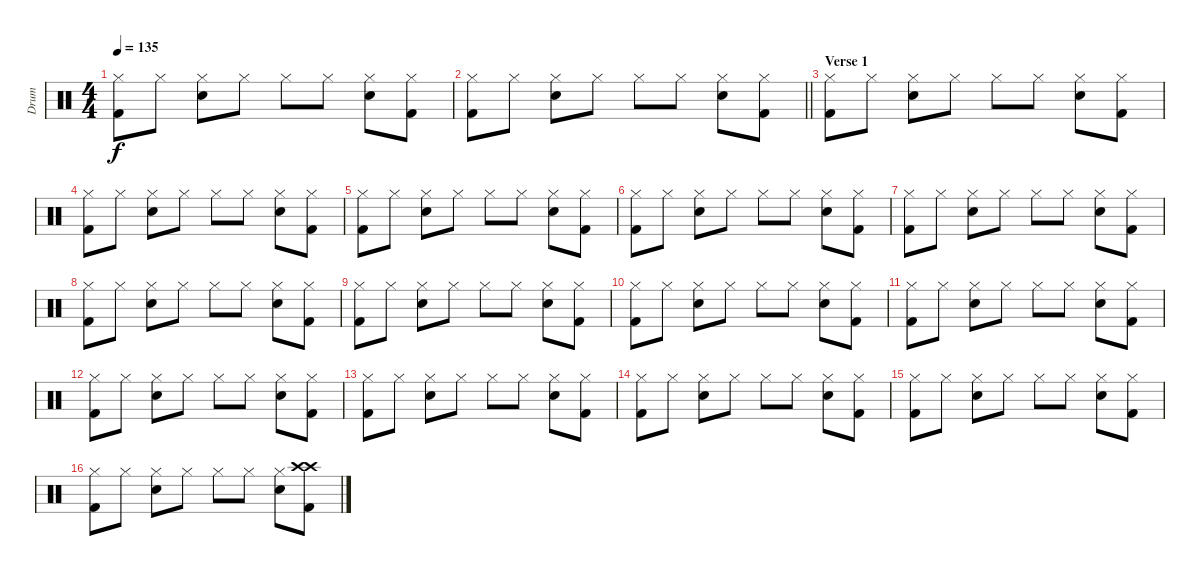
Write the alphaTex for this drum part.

\track ("Drum" "Drum") {instrument percussion}
\staff {score}
\articulation defaults
\ts (4 4)
\tempo 135
\clef neutral
\ks c
("Hi-Hat (closed)" "Kick (hit) 2").8{dy f} "Hi-Hat (closed)".8 ("Snare (hit) 2" "Hi-Hat (closed)").8 "Hi-Hat (closed)".8 "Hi-Hat (closed)".8 "Hi-Hat (closed)".8 ("Snare (hit) 2" "Hi-Hat (closed)").8 ("Hi-Hat (closed)" "Kick (hit) 2").8 |
\barLineRight lightlight
("Hi-Hat (closed)" "Kick (hit) 2").8 "Hi-Hat (closed)".8 ("Snare (hit) 2" "Hi-Hat (closed)").8 "Hi-Hat (closed)".8 "Hi-Hat (closed)".8 "Hi-Hat (closed)".8 ("Snare (hit) 2" "Hi-Hat (closed)").8 ("Hi-Hat (closed)" "Kick (hit) 2").8 |
\section ("" "Verse 1")
("Hi-Hat (closed)" "Kick (hit) 2").8 "Hi-Hat (closed)".8 ("Snare (hit) 2" "Hi-Hat (closed)").8 "Hi-Hat (closed)".8 "Hi-Hat (closed)".8 "Hi-Hat (closed)".8 ("Snare (hit) 2" "Hi-Hat (closed)").8 ("Hi-Hat (closed)" "Kick (hit) 2").8 |
("Hi-Hat (closed)" "Kick (hit) 2").8 "Hi-Hat (closed)".8 ("Snare (hit) 2" "Hi-Hat (closed)").8 "Hi-Hat (closed)".8 "Hi-Hat (closed)".8 "Hi-Hat (closed)".8 ("Snare (hit) 2" "Hi-Hat (closed)").8 ("Hi-Hat (closed)" "Kick (hit) 2").8 |
("Hi-Hat (closed)" "Kick (hit) 2").8 "Hi-Hat (closed)".8 ("Snare (hit) 2" "Hi-Hat (closed)").8 "Hi-Hat (closed)".8 "Hi-Hat (closed)".8 "Hi-Hat (closed)".8 ("Snare (hit) 2" "Hi-Hat (closed)").8 ("Hi-Hat (closed)" "Kick (hit) 2").8 |
("Hi-Hat (closed)" "Kick (hit) 2").8 "Hi-Hat (closed)".8 ("Snare (hit) 2" "Hi-Hat (closed)").8 "Hi-Hat (closed)".8 "Hi-Hat (closed)".8 "Hi-Hat (closed)".8 ("Snare (hit) 2" "Hi-Hat (closed)").8 ("Hi-Hat (closed)" "Kick (hit) 2").8 |
("Hi-Hat (closed)" "Kick (hit) 2").8 "Hi-Hat (closed)".8 ("Snare (hit) 2" "Hi-Hat (closed)").8 "Hi-Hat (closed)".8 "Hi-Hat (closed)".8 "Hi-Hat (closed)".8 ("Snare (hit) 2" "Hi-Hat (closed)").8 ("Hi-Hat (closed)" "Kick (hit) 2").8 |
("Hi-Hat (closed)" "Kick (hit) 2").8 "Hi-Hat (closed)".8 ("Snare (hit) 2" "Hi-Hat (closed)").8 "Hi-Hat (closed)".8 "Hi-Hat (closed)".8 "Hi-Hat (closed)".8 ("Snare (hit) 2" "Hi-Hat (closed)").8 ("Hi-Hat (closed)" "Kick (hit) 2").8 |
("Hi-Hat (closed)" "Kick (hit) 2").8 "Hi-Hat (closed)".8 ("Snare (hit) 2" "Hi-Hat (closed)").8 "Hi-Hat (closed)".8 "Hi-Hat (closed)".8 "Hi-Hat (closed)".8 ("Snare (hit) 2" "Hi-Hat (closed)").8 ("Hi-Hat (closed)" "Kick (hit) 2").8 |
("Hi-Hat (closed)" "Kick (hit) 2").8 "Hi-Hat (closed)".8 ("Snare (hit) 2" "Hi-Hat (closed)").8 "Hi-Hat (closed)".8 "Hi-Hat (closed)".8 "Hi-Hat (closed)".8 ("Snare (hit) 2" "Hi-Hat (closed)").8 ("Hi-Hat (closed)" "Kick (hit) 2").8 |
("Hi-Hat (closed)" "Kick (hit) 2").8 "Hi-Hat (closed)".8 ("Snare (hit) 2" "Hi-Hat (closed)").8 "Hi-Hat (closed)".8 "Hi-Hat (closed)".8 "Hi-Hat (closed)".8 ("Snare (hit) 2" "Hi-Hat (closed)").8 ("Hi-Hat (closed)" "Kick (hit) 2").8 |
("Hi-Hat (closed)" "Kick (hit) 2").8 "Hi-Hat (closed)".8 ("Snare (hit) 2" "Hi-Hat (closed)").8 "Hi-Hat (closed)".8 "Hi-Hat (closed)".8 "Hi-Hat (closed)".8 ("Snare (hit) 2" "Hi-Hat (closed)").8 ("Hi-Hat (closed)" "Kick (hit) 2").8 |
("Hi-Hat (closed)" "Kick (hit) 2").8 "Hi-Hat (closed)".8 ("Snare (hit) 2" "Hi-Hat (closed)").8 "Hi-Hat (closed)".8 "Hi-Hat (closed)".8 "Hi-Hat (closed)".8 ("Snare (hit) 2" "Hi-Hat (closed)").8 ("Hi-Hat (closed)" "Kick (hit) 2").8 |
("Hi-Hat (closed)" "Kick (hit) 2").8 "Hi-Hat (closed)".8 ("Snare (hit) 2" "Hi-Hat (closed)").8 "Hi-Hat (closed)".8 "Hi-Hat (closed)".8 "Hi-Hat (closed)".8 ("Snare (hit) 2" "Hi-Hat (closed)").8 ("Hi-Hat (closed)" "Kick (hit) 2").8 |
("Hi-Hat (closed)" "Kick (hit) 2").8 "Hi-Hat (closed)".8 ("Snare (hit) 2" "Hi-Hat (closed)").8 "Hi-Hat (closed)".8 "Hi-Hat (closed)".8 "Hi-Hat (closed)".8 ("Snare (hit) 2" "Hi-Hat (closed)").8 ("Hi-Hat (closed)" "Kick (hit) 2").8 |
("Hi-Hat (closed)" "Kick (hit) 2").8 "Hi-Hat (closed)".8 ("Snare (hit) 2" "Hi-Hat (closed)").8 "Hi-Hat (closed)".8 "Hi-Hat (closed)".8 "Hi-Hat (closed)".8 ("Snare (hit) 2" "Hi-Hat (closed)").8 ("Crash high (hit)" "Crash high (hit)" "Kick (hit) 2").8
